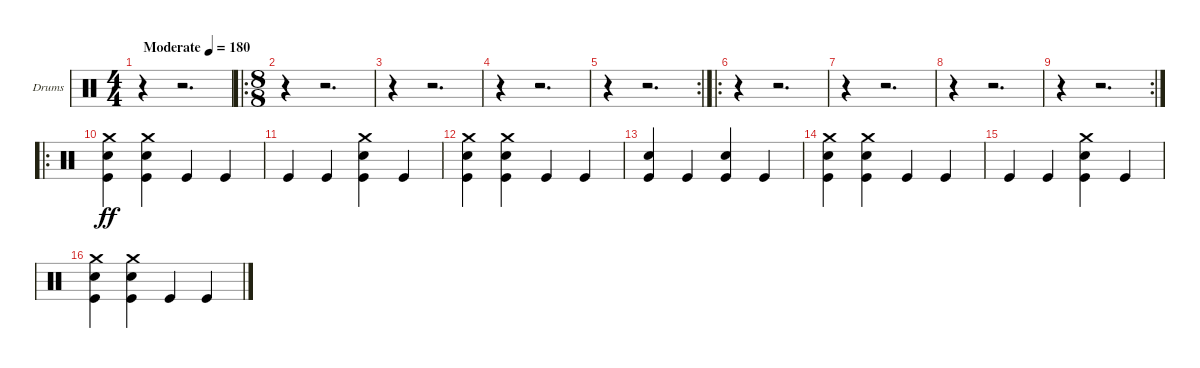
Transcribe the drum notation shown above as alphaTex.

\bracketExtendMode groupsimilarinstruments
\firstSystemTrackNameOrientation horizontal
\otherSystemsTrackNameOrientation horizontal
\track ("Drumkit" "Drums") {instrument percussion}
\staff {score}
\articulation defaults
\ts (4 4)
\beaming (8 2 2 2 2)
\tempo (180 "Moderate")
\clef neutral
\ks c
r.4{dy ff} r.2{d} |
\ro
\ts (8 8)
\beaming (8 2 2 2 2)
r.4 r.2{d} |
r.4 r.2{d} |
r.4 r.2{d} |
\rc 2
r.4 r.2{d} |
\ro
r.4 r.2{d} |
r.4 r.2{d} |
r.4 r.2{d} |
\rc 2
r.4 r.2{d} |
\ro
("Crash medium (hit)" "Snare (hit) 2" "Kick (hit)").4 ("Crash medium (hit)" "Snare (hit) 2" "Kick (hit)").4 "Kick (hit)".4 "Kick (hit)".4 |
"Kick (hit)".4 "Kick (hit)".4 ("Crash medium (hit)" "Snare (hit) 2" "Kick (hit)").4 "Kick (hit)".4 |
("Crash medium (hit)" "Snare (hit) 2" "Kick (hit)").4 ("Crash medium (hit)" "Snare (hit) 2" "Kick (hit)").4 "Kick (hit)".4 "Kick (hit)".4 |
("Snare (hit) 2" "Kick (hit)").4 "Kick (hit)".4 ("Snare (hit) 2" "Kick (hit)").4 "Kick (hit)".4 |
("Crash medium (hit)" "Snare (hit) 2" "Kick (hit)").4 ("Crash medium (hit)" "Snare (hit) 2" "Kick (hit)").4 "Kick (hit)".4 "Kick (hit)".4 |
"Kick (hit)".4 "Kick (hit)".4 ("Crash medium (hit)" "Snare (hit) 2" "Kick (hit)").4 "Kick (hit)".4 |
("Crash medium (hit)" "Snare (hit) 2" "Kick (hit)").4 ("Crash medium (hit)" "Snare (hit) 2" "Kick (hit)").4 "Kick (hit)".4 "Kick (hit)".4
